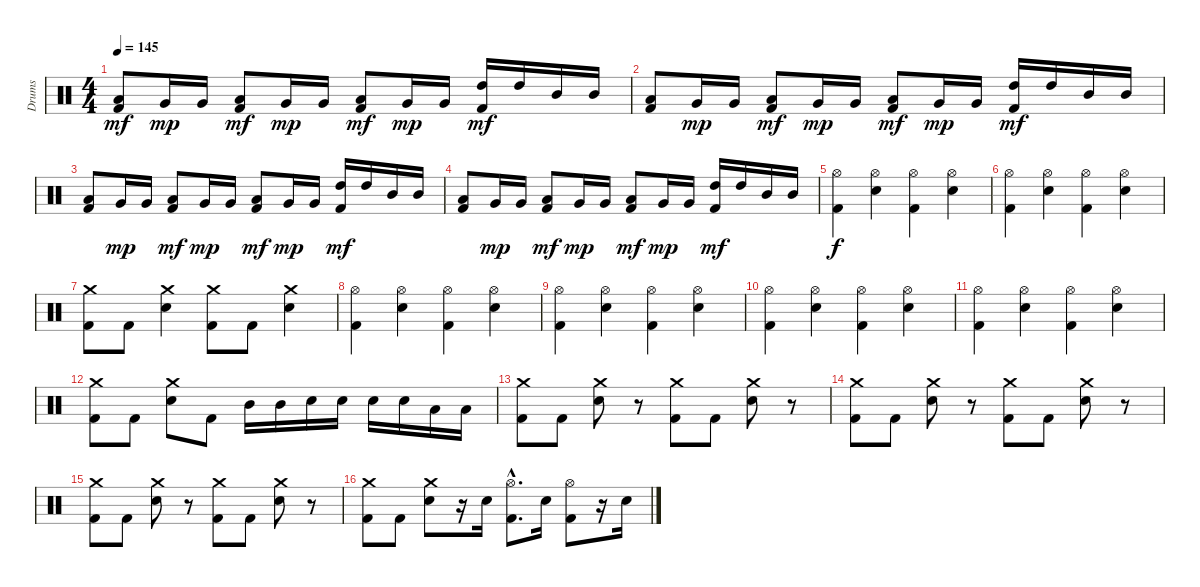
\track ("Drums" "Drums") {instrument percussion}
\staff {score}
\articulation defaults
\ts (4 4)
\tempo 145
\clef neutral
\ks c
("Low Tom (hit)" "Kick (hit) 2").8{dy mf} "Very Low Tom (hit)".16{dy mp} "Very Low Tom (hit)".16 ("Low Tom (hit)" "Kick (hit) 2").8{dy mf} "Very Low Tom (hit)".16{dy mp} "Very Low Tom (hit)".16 ("Low Tom (hit)" "Kick (hit) 2").8{dy mf} "Very Low Tom (hit)".16{dy mp} "Very Low Tom (hit)".16 ("High Tom (hit)" "Kick (hit) 2").16{dy mf} "High Tom (hit)".16 "Mid Tom (hit)".16 "Mid Tom (hit)".16 |
("Low Tom (hit)" "Kick (hit) 2").8 "Very Low Tom (hit)".16{dy mp} "Very Low Tom (hit)".16 ("Low Tom (hit)" "Kick (hit) 2").8{dy mf} "Very Low Tom (hit)".16{dy mp} "Very Low Tom (hit)".16 ("Low Tom (hit)" "Kick (hit) 2").8{dy mf} "Very Low Tom (hit)".16{dy mp} "Very Low Tom (hit)".16 ("High Tom (hit)" "Kick (hit) 2").16{dy mf} "High Tom (hit)".16 "Mid Tom (hit)".16 "Mid Tom (hit)".16 |
("Low Tom (hit)" "Kick (hit) 2").8 "Very Low Tom (hit)".16{dy mp} "Very Low Tom (hit)".16 ("Low Tom (hit)" "Kick (hit) 2").8{dy mf} "Very Low Tom (hit)".16{dy mp} "Very Low Tom (hit)".16 ("Low Tom (hit)" "Kick (hit) 2").8{dy mf} "Very Low Tom (hit)".16{dy mp} "Very Low Tom (hit)".16 ("High Tom (hit)" "Kick (hit) 2").16{dy mf} "High Tom (hit)".16 "Mid Tom (hit)".16 "Mid Tom (hit)".16 |
("Low Tom (hit)" "Kick (hit) 2").8 "Very Low Tom (hit)".16{dy mp} "Very Low Tom (hit)".16 ("Low Tom (hit)" "Kick (hit) 2").8{dy mf} "Very Low Tom (hit)".16{dy mp} "Very Low Tom (hit)".16 ("Low Tom (hit)" "Kick (hit) 2").8{dy mf} "Very Low Tom (hit)".16{dy mp} "Very Low Tom (hit)".16 ("High Tom (hit)" "Kick (hit) 2").16{dy mf} "High Tom (hit)".16 "Mid Tom (hit)".16 "Mid Tom (hit)".16 |
("Hi-Hat (open)" "Kick (hit) 2").4{dy f} ("Hi-Hat (open)" "Snare (hit) 2").4 ("Hi-Hat (open)" "Kick (hit) 2").4 ("Hi-Hat (open)" "Snare (hit) 2").4 |
("Hi-Hat (open)" "Kick (hit) 2").4 ("Hi-Hat (open)" "Snare (hit) 2").4 ("Hi-Hat (open)" "Kick (hit) 2").4 ("Hi-Hat (open)" "Snare (hit) 2").4 |
("Crash medium (hit)" "Kick (hit) 2").8 "Kick (hit) 2".8 ("Crash medium (hit)" "Snare (hit) 2").4 ("Crash medium (hit)" "Kick (hit) 2").8 "Kick (hit) 2".8 ("Crash medium (hit)" "Snare (hit) 2").4 |
("Hi-Hat (open)" "Kick (hit) 2").4 ("Hi-Hat (open)" "Snare (hit) 2").4 ("Hi-Hat (open)" "Kick (hit) 2").4 ("Hi-Hat (open)" "Snare (hit) 2").4 |
("Hi-Hat (open)" "Kick (hit) 2").4 ("Hi-Hat (open)" "Snare (hit) 2").4 ("Hi-Hat (open)" "Kick (hit) 2").4 ("Hi-Hat (open)" "Snare (hit) 2").4 |
("Hi-Hat (open)" "Kick (hit) 2").4 ("Hi-Hat (open)" "Snare (hit) 2").4 ("Hi-Hat (open)" "Kick (hit) 2").4 ("Hi-Hat (open)" "Snare (hit) 2").4 |
("Hi-Hat (open)" "Kick (hit) 2").4 ("Hi-Hat (open)" "Snare (hit) 2").4 ("Hi-Hat (open)" "Kick (hit) 2").4 ("Hi-Hat (open)" "Snare (hit) 2").4 |
("Crash medium (hit)" "Kick (hit) 2").8 "Kick (hit) 2".8 ("Crash medium (hit)" "Snare (hit) 2").8 "Kick (hit) 2".8 "Mid Tom (hit)".16 "Mid Tom (hit)".16 "Snare (hit) 2".16 "Snare (hit) 2".16 "Snare (hit) 2".16 "Snare (hit) 2".16 "Low Tom (hit)".16 "Low Tom (hit)".16 |
("Crash medium (hit)" "Kick (hit) 2").8 "Kick (hit) 2".8 ("Crash medium (hit)" "Snare (hit) 2").8 r.8 ("Crash medium (hit)" "Kick (hit) 2").8 "Kick (hit) 2".8 ("Crash medium (hit)" "Snare (hit) 2").8 r.8 |
("Crash medium (hit)" "Kick (hit) 2").8 "Kick (hit) 2".8 ("Crash medium (hit)" "Snare (hit) 2").8 r.8 ("Crash medium (hit)" "Kick (hit) 2").8 "Kick (hit) 2".8 ("Crash medium (hit)" "Snare (hit) 2").8 r.8 |
("Crash medium (hit)" "Kick (hit) 2").8 "Kick (hit) 2".8 ("Crash medium (hit)" "Snare (hit) 2").8 r.8 ("Crash medium (hit)" "Kick (hit) 2").8 "Kick (hit) 2".8 ("Crash medium (hit)" "Snare (hit) 2").8 r.8 |
("Crash medium (hit)" "Kick (hit) 2").8 "Kick (hit) 2".8 ("Crash medium (hit)" "Snare (hit) 2").8 r.16 "Snare (hit) 2".16 ("Hi-Hat (open)"{hac} "Kick (hit) 2"{hac}).8{d} "Snare (hit) 2".16 ("Hi-Hat (open)" "Kick (hit) 2").8 r.16 "Snare (hit) 2".16
